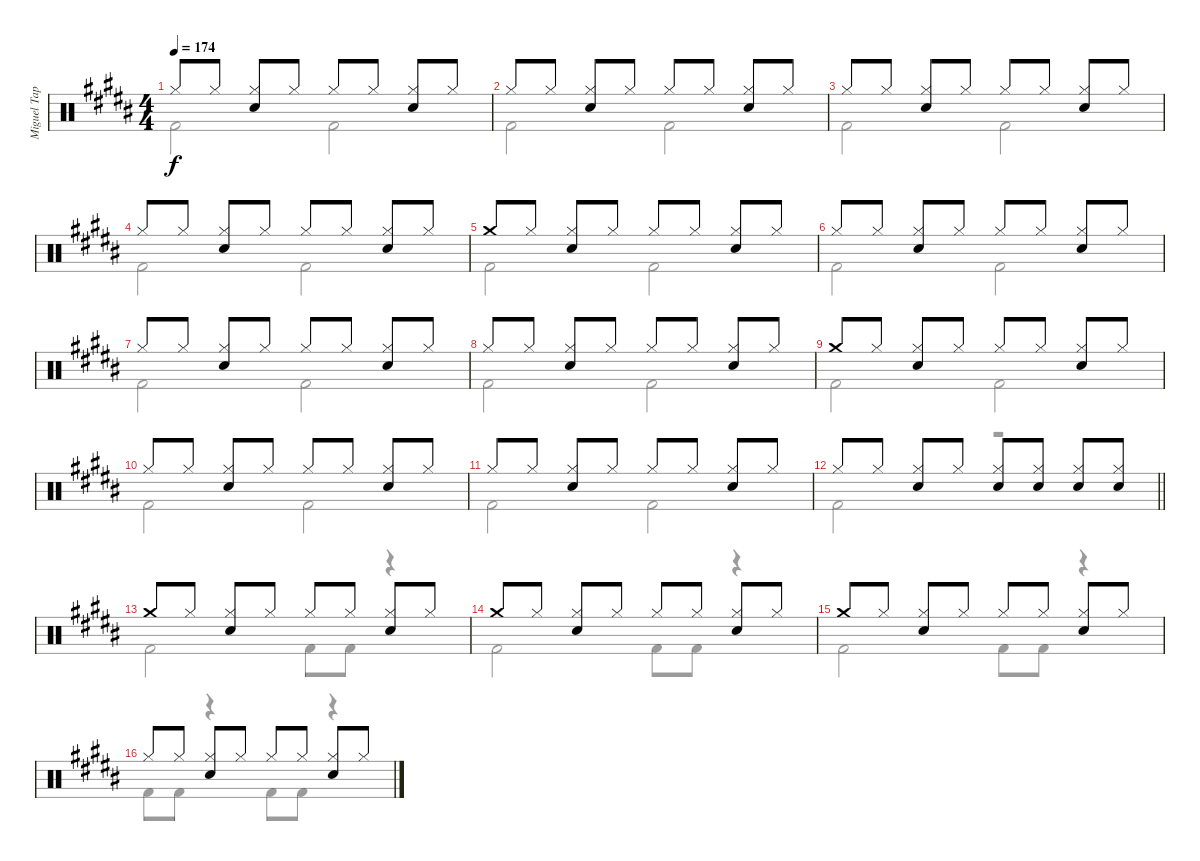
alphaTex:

\track ("Miguel Tapia" "Miguel Tap") {instrument percussion}
\staff {score}
\articulation defaults
\voice
\ts (4 4)
\tempo 174
\clef neutral
\ks b "Hi-Hat (closed)".8{dy f} "Hi-Hat (closed)".8
("Hi-Hat (closed)" "Snare (hit) 2").8 "Hi-Hat (closed)".8 "Hi-Hat (closed)".8 "Hi-Hat (closed)".8 ("Hi-Hat (closed)" "Snare (hit) 2").8 "Hi-Hat (closed)".8 |
"Hi-Hat (closed)".8 "Hi-Hat (closed)".8 ("Hi-Hat (closed)" "Snare (hit) 2").8 "Hi-Hat (closed)".8 "Hi-Hat (closed)".8 "Hi-Hat (closed)".8 ("Hi-Hat (closed)" "Snare (hit) 2").8 "Hi-Hat (closed)".8 |
"Hi-Hat (closed)".8 "Hi-Hat (closed)".8 ("Hi-Hat (closed)" "Snare (hit) 2").8 "Hi-Hat (closed)".8 "Hi-Hat (closed)".8 "Hi-Hat (closed)".8 ("Hi-Hat (closed)" "Snare (hit) 2").8 "Hi-Hat (closed)".8 |
"Hi-Hat (closed)".8 "Hi-Hat (closed)".8 ("Hi-Hat (closed)" "Snare (hit) 2").8 "Hi-Hat (closed)".8 "Hi-Hat (closed)".8 "Hi-Hat (closed)".8 ("Hi-Hat (closed)" "Snare (hit) 2").8 "Hi-Hat (closed)".8 |
"Crash medium (hit)".8 "Hi-Hat (closed)".8 ("Hi-Hat (closed)" "Snare (hit) 2").8 "Hi-Hat (closed)".8 "Hi-Hat (closed)".8 "Hi-Hat (closed)".8 ("Hi-Hat (closed)" "Snare (hit) 2").8 "Hi-Hat (closed)".8 |
"Hi-Hat (closed)".8 "Hi-Hat (closed)".8 ("Hi-Hat (closed)" "Snare (hit) 2").8 "Hi-Hat (closed)".8 "Hi-Hat (closed)".8 "Hi-Hat (closed)".8 ("Hi-Hat (closed)" "Snare (hit) 2").8 "Hi-Hat (closed)".8 |
"Hi-Hat (closed)".8 "Hi-Hat (closed)".8 ("Hi-Hat (closed)" "Snare (hit) 2").8 "Hi-Hat (closed)".8 "Hi-Hat (closed)".8 "Hi-Hat (closed)".8 ("Hi-Hat (closed)" "Snare (hit) 2").8 "Hi-Hat (closed)".8 |
"Hi-Hat (closed)".8 "Hi-Hat (closed)".8 ("Hi-Hat (closed)" "Snare (hit) 2").8 "Hi-Hat (closed)".8 "Hi-Hat (closed)".8 "Hi-Hat (closed)".8 ("Hi-Hat (closed)" "Snare (hit) 2").8 "Hi-Hat (closed)".8 |
"Crash medium (hit)".8 "Hi-Hat (closed)".8 ("Hi-Hat (closed)" "Snare (hit) 2").8 "Hi-Hat (closed)".8 "Hi-Hat (closed)".8 "Hi-Hat (closed)".8 ("Hi-Hat (closed)" "Snare (hit) 2").8 "Hi-Hat (closed)".8 |
"Hi-Hat (closed)".8 "Hi-Hat (closed)".8 ("Hi-Hat (closed)" "Snare (hit) 2").8 "Hi-Hat (closed)".8 "Hi-Hat (closed)".8 "Hi-Hat (closed)".8 ("Hi-Hat (closed)" "Snare (hit) 2").8 "Hi-Hat (closed)".8 |
"Hi-Hat (closed)".8 "Hi-Hat (closed)".8 ("Hi-Hat (closed)" "Snare (hit) 2").8 "Hi-Hat (closed)".8 "Hi-Hat (closed)".8 "Hi-Hat (closed)".8 ("Hi-Hat (closed)" "Snare (hit) 2").8 "Hi-Hat (closed)".8 |
\barLineRight lightlight "Hi-Hat (closed)".8 "Hi-Hat (closed)".8
("Hi-Hat (closed)" "Snare (hit) 2").8 "Hi-Hat (closed)".8 ("Hi-Hat (closed)" "Snare (hit) 2").8 ("Hi-Hat (closed)" "Snare (hit) 2").8 ("Hi-Hat (closed)" "Snare (hit) 2").8 ("Hi-Hat (closed)" "Snare (hit) 2").8 |
"Crash medium (hit)".8 "Hi-Hat (closed)".8 ("Hi-Hat (closed)" "Snare (hit) 2").8 "Hi-Hat (closed)".8 "Hi-Hat (closed)".8 "Hi-Hat (closed)".8 ("Hi-Hat (closed)" "Snare (hit) 2").8 "Hi-Hat (closed)".8 |
"Crash medium (hit)".8 "Hi-Hat (closed)".8 ("Hi-Hat (closed)" "Snare (hit) 2").8 "Hi-Hat (closed)".8 "Hi-Hat (closed)".8 "Hi-Hat (closed)".8 ("Hi-Hat (closed)" "Snare (hit) 2").8 "Hi-Hat (closed)".8 |
"Crash medium (hit)".8 "Hi-Hat (closed)".8 ("Hi-Hat (closed)" "Snare (hit) 2").8 "Hi-Hat (closed)".8 "Hi-Hat (closed)".8 "Hi-Hat (closed)".8 ("Hi-Hat (closed)" "Snare (hit) 2").8 "Hi-Hat (closed)".8 |
"Hi-Hat (closed)".8 "Hi-Hat (closed)".8 ("Hi-Hat (closed)" "Snare (hit) 2").8 "Hi-Hat (closed)".8 "Hi-Hat (closed)".8 "Hi-Hat (closed)".8 ("Hi-Hat (closed)" "Snare (hit) 2").8 "Hi-Hat (closed)".8
\voice
\clef neutral
\ottava regular
\simile none
\ks b "Kick (hit) 2".2{dy f} "Kick (hit) 2".2
|
"Kick (hit) 2".2 "Kick (hit) 2".2 |
"Kick (hit) 2".2 "Kick (hit) 2".2 |
"Kick (hit) 2".2 "Kick (hit) 2".2 |
"Kick (hit) 2".2 "Kick (hit) 2".2 |
"Kick (hit) 2".2 "Kick (hit) 2".2 |
"Kick (hit) 2".2 "Kick (hit) 2".2 |
"Kick (hit) 2".2 "Kick (hit) 2".2 |
"Kick (hit) 2".2 "Kick (hit) 2".2 |
"Kick (hit) 2".2 "Kick (hit) 2".2 |
"Kick (hit) 2".2 "Kick (hit) 2".2 |
\barLineRight lightlight "Kick (hit) 2".2
r.2 |
"Kick (hit) 2".2 "Kick (hit) 2".8 "Kick (hit) 2".8 r.4 |
"Kick (hit) 2".2 "Kick (hit) 2".8 "Kick (hit) 2".8 r.4 |
"Kick (hit) 2".2 "Kick (hit) 2".8 "Kick (hit) 2".8 r.4 |
"Kick (hit) 2".8 "Kick (hit) 2".8 r.4 "Kick (hit) 2".8 "Kick (hit) 2".8 r.4
